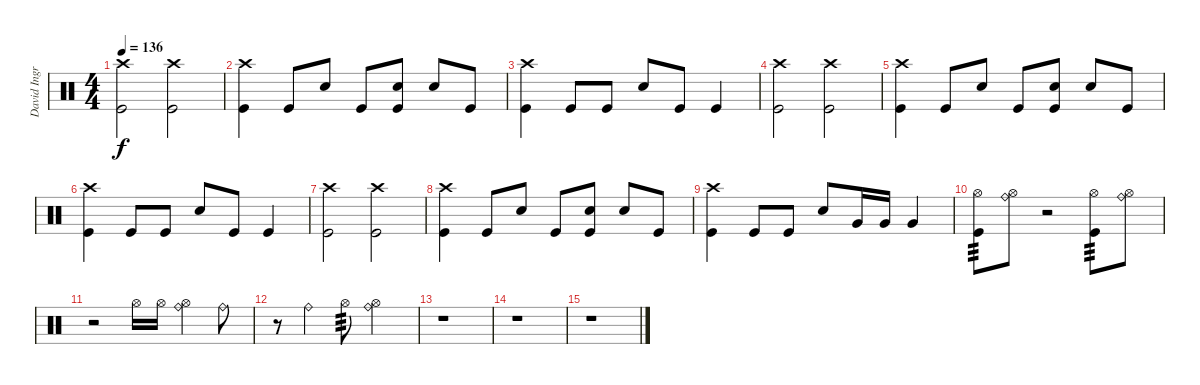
\track ("David Ingraham" "David Ingr") {instrument percussion}
\staff {score}
\articulation defaults
\ts (4 4)
\tempo 136
\clef neutral
\ks c
("Crash high (hit)" "Kick (hit)").2{dy f} ("Crash high (hit)" "Kick (hit)").2 |
("Crash high (hit)" "Kick (hit)").4 "Kick (hit)".8 "Snare (hit) 2".8 "Kick (hit)".8 ("Snare (hit) 2" "Kick (hit)").8 "Snare (hit) 2".8 "Kick (hit)".8 |
("Crash high (hit)" "Kick (hit)").4 "Kick (hit)".8 "Kick (hit)".8 "Snare (hit) 2".8 "Kick (hit)".8 "Kick (hit)".4 |
("Crash high (hit)" "Kick (hit)").2 ("Crash high (hit)" "Kick (hit)").2 |
("Crash high (hit)" "Kick (hit)").4 "Kick (hit)".8 "Snare (hit) 2".8 "Kick (hit)".8 ("Snare (hit) 2" "Kick (hit)").8 "Snare (hit) 2".8 "Kick (hit)".8 |
("Crash high (hit)" "Kick (hit)").4 "Kick (hit)".8 "Kick (hit)".8 "Snare (hit) 2".8 "Kick (hit)".8 "Kick (hit)".4 |
("Crash high (hit)" "Kick (hit)").2 ("Crash high (hit)" "Kick (hit)").2 |
("Crash high (hit)" "Kick (hit)").4 "Kick (hit)".8 "Snare (hit) 2".8 "Kick (hit)".8 ("Snare (hit) 2" "Kick (hit)").8 "Snare (hit) 2".8 "Kick (hit)".8 |
("Crash high (hit)" "Kick (hit)").4 "Kick (hit)".8 "Kick (hit)".8 "Snare (hit) 2".8 "Very Low Tom (hit)".16 "Very Low Tom (hit)".16 "Very Low Tom (hit)".4 |
("Hi-Hat (open)" "Kick (hit)").8{tp 3} ("Ride (bell)" "Hi-Hat (open)").8 r.2 ("Hi-Hat (open)" "Kick (hit)").8{tp 3} ("Ride (bell)" "Hi-Hat (open)").8 |
r.2 "Hi-Hat (open)".16 "Hi-Hat (open)".16 ("Ride (bell)" "Hi-Hat (open)").4 "Ride (bell)".8 |
r.8 "Ride (bell)".4 "Hi-Hat (open)".8{tp 3} ("Ride (bell)" "Hi-Hat (open)").2 |
r.1 |
r.1 |
r.1
